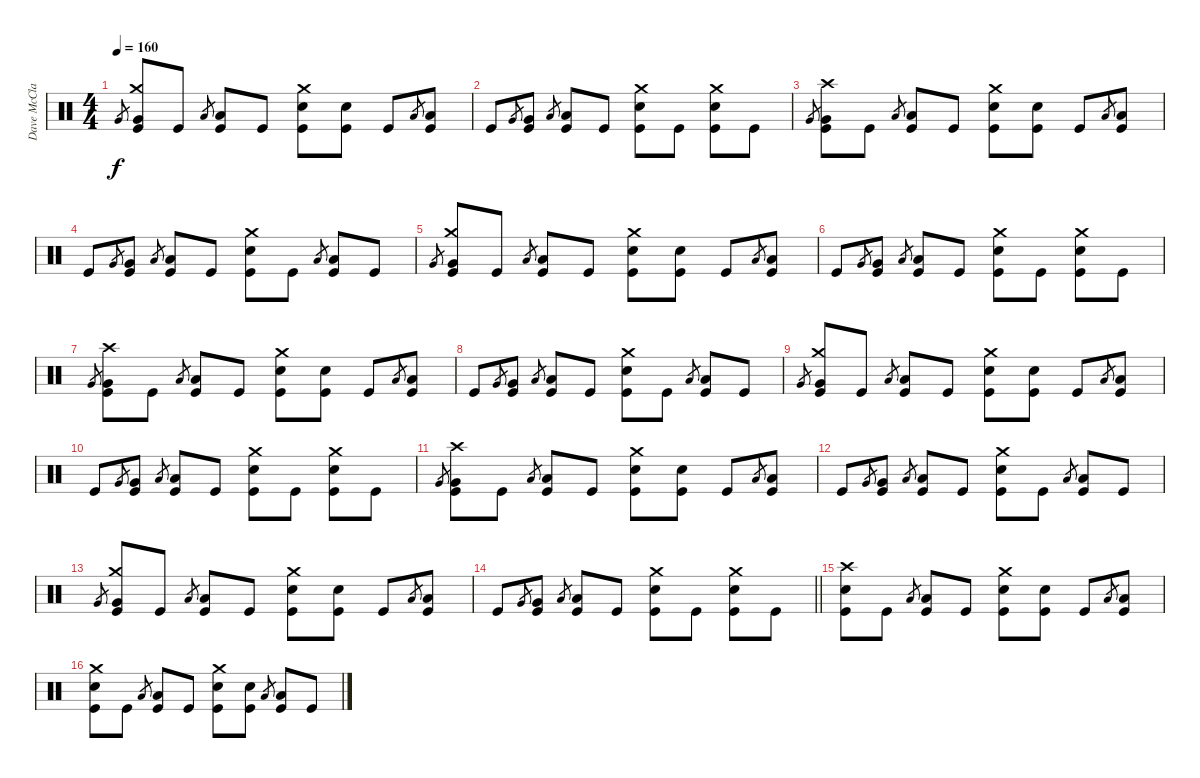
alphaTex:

\track ("Dave McClain" "Dave McCla") {instrument percussion}
\staff {score}
\articulation defaults
\ts (4 4)
\tempo 160
\clef neutral
\ks c "Very Low Tom (hit)".8{gr dy f}
("Crash medium (hit)" "Very Low Tom (hit)" "Kick (hit)").8 "Kick (hit)".8 "Low Floor Tom (hit)".8{gr} ("Low Floor Tom (hit)" "Kick (hit)").8 "Kick (hit)".8 ("Crash medium (hit)" "Electric Snare (hit)" "Kick (hit)").8 ("Electric Snare (hit)" "Kick (hit)").8 "Kick (hit)".8 "Low Tom (hit)".8{gr} ("Low Tom (hit)" "Kick (hit)").8 |
"Kick (hit)".8 "Very Low Tom (hit)".8{gr} ("Very Low Tom (hit)" "Kick (hit)").8 "Low Floor Tom (hit)".8{gr} ("Low Floor Tom (hit)" "Kick (hit)").8 "Kick (hit)".8 ("Crash medium (hit)" "Electric Snare (hit)" "Kick (hit)").8 "Kick (hit)".8 ("Crash medium (hit)" "Electric Snare (hit)" "Kick (hit)").8 "Kick (hit)".8 |
"Very Low Tom (hit)".8{gr} ("Crash high (hit)" "Very Low Tom (hit)" "Kick (hit)").8 "Kick (hit)".8 "Low Floor Tom (hit)".8{gr} ("Low Floor Tom (hit)" "Kick (hit)").8 "Kick (hit)".8 ("Crash medium (hit)" "Electric Snare (hit)" "Kick (hit)").8 ("Electric Snare (hit)" "Kick (hit)").8 "Kick (hit)".8 "Low Tom (hit)".8{gr} ("Low Tom (hit)" "Kick (hit)").8 |
"Kick (hit)".8 "Very Low Tom (hit)".8{gr} ("Very Low Tom (hit)" "Kick (hit)").8 "Low Floor Tom (hit)".8{gr} ("Low Floor Tom (hit)" "Kick (hit)").8 "Kick (hit)".8 ("Crash medium (hit)" "Electric Snare (hit)" "Kick (hit)").8 "Kick (hit)".8 "Low Floor Tom (hit)".8{gr} ("Low Floor Tom (hit)" "Kick (hit)").8 "Kick (hit)".8 |
"Very Low Tom (hit)".8{gr} ("Crash medium (hit)" "Very Low Tom (hit)" "Kick (hit)").8 "Kick (hit)".8 "Low Floor Tom (hit)".8{gr} ("Low Floor Tom (hit)" "Kick (hit)").8 "Kick (hit)".8 ("Crash medium (hit)" "Electric Snare (hit)" "Kick (hit)").8 ("Electric Snare (hit)" "Kick (hit)").8 "Kick (hit)".8 "Low Tom (hit)".8{gr} ("Low Tom (hit)" "Kick (hit)").8 |
"Kick (hit)".8 "Very Low Tom (hit)".8{gr} ("Very Low Tom (hit)" "Kick (hit)").8 "Low Floor Tom (hit)".8{gr} ("Low Floor Tom (hit)" "Kick (hit)").8 "Kick (hit)".8 ("Crash medium (hit)" "Electric Snare (hit)" "Kick (hit)").8 "Kick (hit)".8 ("Crash medium (hit)" "Electric Snare (hit)" "Kick (hit)").8 "Kick (hit)".8 |
"Very Low Tom (hit)".8{gr} ("Crash high (hit)" "Very Low Tom (hit)" "Kick (hit)").8 "Kick (hit)".8 "Low Floor Tom (hit)".8{gr} ("Low Floor Tom (hit)" "Kick (hit)").8 "Kick (hit)".8 ("Crash medium (hit)" "Electric Snare (hit)" "Kick (hit)").8 ("Electric Snare (hit)" "Kick (hit)").8 "Kick (hit)".8 "Low Tom (hit)".8{gr} ("Low Tom (hit)" "Kick (hit)").8 |
"Kick (hit)".8 "Very Low Tom (hit)".8{gr} ("Very Low Tom (hit)" "Kick (hit)").8 "Low Floor Tom (hit)".8{gr} ("Low Floor Tom (hit)" "Kick (hit)").8 "Kick (hit)".8 ("Crash medium (hit)" "Electric Snare (hit)" "Kick (hit)").8 "Kick (hit)".8 "Low Floor Tom (hit)".8{gr} ("Low Floor Tom (hit)" "Kick (hit)").8 "Kick (hit)".8 |
"Very Low Tom (hit)".8{gr} ("Crash medium (hit)" "Very Low Tom (hit)" "Kick (hit)").8 "Kick (hit)".8 "Low Floor Tom (hit)".8{gr} ("Low Floor Tom (hit)" "Kick (hit)").8 "Kick (hit)".8 ("Crash medium (hit)" "Electric Snare (hit)" "Kick (hit)").8 ("Electric Snare (hit)" "Kick (hit)").8 "Kick (hit)".8 "Low Tom (hit)".8{gr} ("Low Tom (hit)" "Kick (hit)").8 |
"Kick (hit)".8 "Very Low Tom (hit)".8{gr} ("Very Low Tom (hit)" "Kick (hit)").8 "Low Floor Tom (hit)".8{gr} ("Low Floor Tom (hit)" "Kick (hit)").8 "Kick (hit)".8 ("Crash medium (hit)" "Electric Snare (hit)" "Kick (hit)").8 "Kick (hit)".8 ("Crash medium (hit)" "Electric Snare (hit)" "Kick (hit)").8 "Kick (hit)".8 |
"Very Low Tom (hit)".8{gr} ("Crash high (hit)" "Very Low Tom (hit)" "Kick (hit)").8 "Kick (hit)".8 "Low Floor Tom (hit)".8{gr} ("Low Floor Tom (hit)" "Kick (hit)").8 "Kick (hit)".8 ("Crash medium (hit)" "Electric Snare (hit)" "Kick (hit)").8 ("Electric Snare (hit)" "Kick (hit)").8 "Kick (hit)".8 "Low Tom (hit)".8{gr} ("Low Tom (hit)" "Kick (hit)").8 |
"Kick (hit)".8 "Very Low Tom (hit)".8{gr} ("Very Low Tom (hit)" "Kick (hit)").8 "Low Floor Tom (hit)".8{gr} ("Low Floor Tom (hit)" "Kick (hit)").8 "Kick (hit)".8 ("Crash medium (hit)" "Electric Snare (hit)" "Kick (hit)").8 "Kick (hit)".8 "Low Floor Tom (hit)".8{gr} ("Low Floor Tom (hit)" "Kick (hit)").8 "Kick (hit)".8 |
"Very Low Tom (hit)".8{gr} ("Crash medium (hit)" "Very Low Tom (hit)" "Kick (hit)").8 "Kick (hit)".8 "Low Floor Tom (hit)".8{gr} ("Low Floor Tom (hit)" "Kick (hit)").8 "Kick (hit)".8 ("Crash medium (hit)" "Electric Snare (hit)" "Kick (hit)").8 ("Electric Snare (hit)" "Kick (hit)").8 "Kick (hit)".8 "Low Tom (hit)".8{gr} ("Low Tom (hit)" "Kick (hit)").8 |
\barLineRight lightlight "Kick (hit)".8 "Very Low Tom (hit)".8{gr}
("Very Low Tom (hit)" "Kick (hit)").8 "Low Floor Tom (hit)".8{gr} ("Low Floor Tom (hit)" "Kick (hit)").8 "Kick (hit)".8 ("Crash medium (hit)" "Electric Snare (hit)" "Kick (hit)").8 "Kick (hit)".8 ("Crash medium (hit)" "Electric Snare (hit)" "Kick (hit)").8 "Kick (hit)".8 |
("Crash high (hit)" "Electric Snare (hit)" "Kick (hit)").8 "Kick (hit)".8 "Low Floor Tom (hit)".8{gr} ("Low Floor Tom (hit)" "Kick (hit)").8 "Kick (hit)".8 ("Crash medium (hit)" "Electric Snare (hit)" "Kick (hit)").8 ("Electric Snare (hit)" "Kick (hit)").8 "Kick (hit)".8 "Low Tom (hit)".8{gr} ("Low Tom (hit)" "Kick (hit)").8 |
("Crash medium (hit)" "Electric Snare (hit)" "Kick (hit)").8 "Kick (hit)".8 "Low Floor Tom (hit)".8{gr} ("Low Floor Tom (hit)" "Kick (hit)").8 "Kick (hit)".8 ("Crash medium (hit)" "Electric Snare (hit)" "Kick (hit)").8 ("Electric Snare (hit)" "Kick (hit)").8 "Low Floor Tom (hit)".8{gr} ("Low Floor Tom (hit)" "Kick (hit)").8 "Kick (hit)".8
